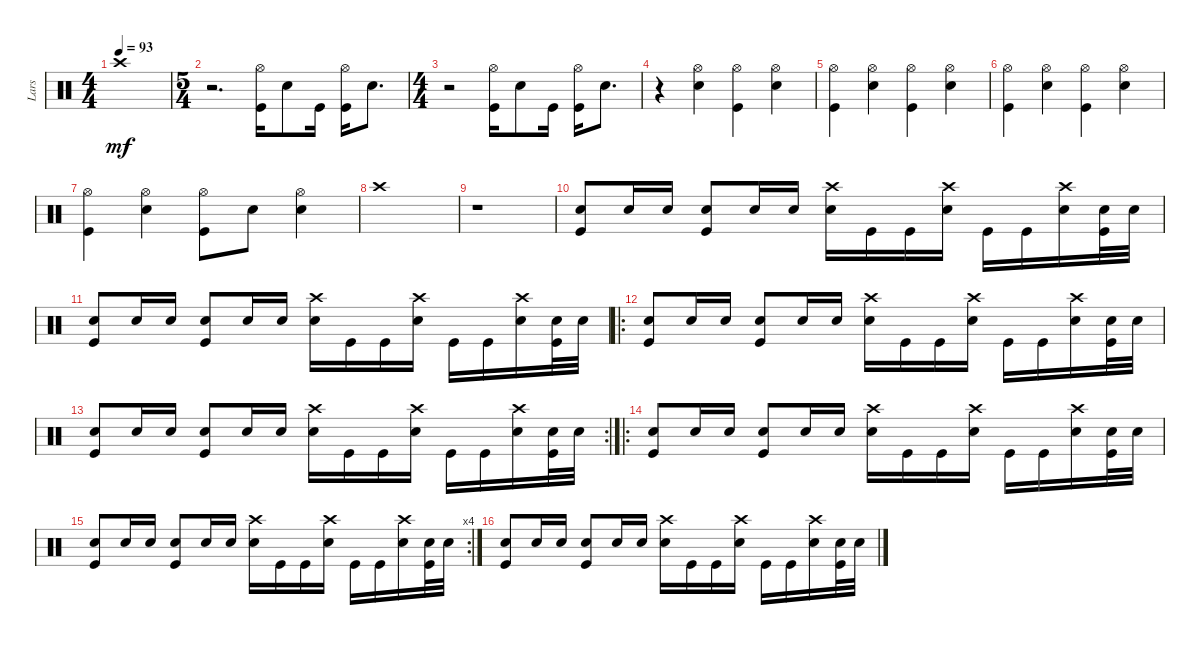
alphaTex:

\track ("Lars" "Lars") {instrument percussion}
\staff {score}
\articulation defaults
\ts (4 4)
\tempo 93
\clef neutral
\ks c "Crash high (hit)".1{dy mf}
|
\ts (5 4)
r.2{d} ("Hi-Hat (open)" "Kick (hit)").16 "Snare (hit) 2".8 "Kick (hit)".16 ("Hi-Hat (open)" "Kick (hit)").16 "Snare (hit) 2".8{d} |
\ts (4 4)
r.2 ("Hi-Hat (open)" "Kick (hit)").16 "Snare (hit) 2".8 "Kick (hit)".16 ("Hi-Hat (open)" "Kick (hit)").16 "Snare (hit) 2".8{d} |
r.4 ("Hi-Hat (open)" "Snare (hit) 2").4 ("Hi-Hat (open)" "Kick (hit)").4 ("Hi-Hat (open)" "Snare (hit) 2").4 |
("Hi-Hat (open)" "Kick (hit)").4 ("Hi-Hat (open)" "Snare (hit) 2").4 ("Hi-Hat (open)" "Kick (hit)").4 ("Hi-Hat (open)" "Snare (hit) 2").4 |
("Hi-Hat (open)" "Kick (hit)").4 ("Hi-Hat (open)" "Snare (hit) 2").4 ("Hi-Hat (open)" "Kick (hit)").4 ("Hi-Hat (open)" "Snare (hit) 2").4 |
("Hi-Hat (open)" "Kick (hit)").4 ("Hi-Hat (open)" "Snare (hit) 2").4 ("Hi-Hat (open)" "Kick (hit)").8 "Snare (hit) 2".8 ("Hi-Hat (open)" "Snare (hit) 2").4 |
"Crash high (hit)".1 |
r.1 |
("Snare (hit) 2" "Kick (hit)").8 "Snare (hit) 2".16 "Snare (hit) 2".16 ("Snare (hit) 2" "Kick (hit)").8 "Snare (hit) 2".16 "Snare (hit) 2".16 ("Crash high (hit)" "Snare (hit) 2").16 "Kick (hit)".16 "Kick (hit)".16 ("Crash high (hit)" "Snare (hit) 2").16 "Kick (hit)".16 "Kick (hit)".16 ("Crash high (hit)" "Snare (hit) 2").16 ("Snare (hit) 2" "Kick (hit)").32 "Snare (hit) 2".32 |
("Snare (hit) 2" "Kick (hit)").8 "Snare (hit) 2".16 "Snare (hit) 2".16 ("Snare (hit) 2" "Kick (hit)").8 "Snare (hit) 2".16 "Snare (hit) 2".16 ("Crash high (hit)" "Snare (hit) 2").16 "Kick (hit)".16 "Kick (hit)".16 ("Crash high (hit)" "Snare (hit) 2").16 "Kick (hit)".16 "Kick (hit)".16 ("Crash high (hit)" "Snare (hit) 2").16 ("Snare (hit) 2" "Kick (hit)").32 "Snare (hit) 2".32 |
\ro
("Snare (hit) 2" "Kick (hit)").8 "Snare (hit) 2".16 "Snare (hit) 2".16 ("Snare (hit) 2" "Kick (hit)").8 "Snare (hit) 2".16 "Snare (hit) 2".16 ("Crash high (hit)" "Snare (hit) 2").16 "Kick (hit)".16 "Kick (hit)".16 ("Crash high (hit)" "Snare (hit) 2").16 "Kick (hit)".16 "Kick (hit)".16 ("Crash high (hit)" "Snare (hit) 2").16 ("Snare (hit) 2" "Kick (hit)").32 "Snare (hit) 2".32 |
\rc 2
("Snare (hit) 2" "Kick (hit)").8 "Snare (hit) 2".16 "Snare (hit) 2".16 ("Snare (hit) 2" "Kick (hit)").8 "Snare (hit) 2".16 "Snare (hit) 2".16 ("Crash high (hit)" "Snare (hit) 2").16 "Kick (hit)".16 "Kick (hit)".16 ("Crash high (hit)" "Snare (hit) 2").16 "Kick (hit)".16 "Kick (hit)".16 ("Crash high (hit)" "Snare (hit) 2").16 ("Snare (hit) 2" "Kick (hit)").32 "Snare (hit) 2".32 |
\ro
("Snare (hit) 2" "Kick (hit)").8 "Snare (hit) 2".16 "Snare (hit) 2".16 ("Snare (hit) 2" "Kick (hit)").8 "Snare (hit) 2".16 "Snare (hit) 2".16 ("Crash high (hit)" "Snare (hit) 2").16 "Kick (hit)".16 "Kick (hit)".16 ("Crash high (hit)" "Snare (hit) 2").16 "Kick (hit)".16 "Kick (hit)".16 ("Crash high (hit)" "Snare (hit) 2").16 ("Snare (hit) 2" "Kick (hit)").32 "Snare (hit) 2".32 |
\rc 4
("Snare (hit) 2" "Kick (hit)").8 "Snare (hit) 2".16 "Snare (hit) 2".16 ("Snare (hit) 2" "Kick (hit)").8 "Snare (hit) 2".16 "Snare (hit) 2".16 ("Crash high (hit)" "Snare (hit) 2").16 "Kick (hit)".16 "Kick (hit)".16 ("Crash high (hit)" "Snare (hit) 2").16 "Kick (hit)".16 "Kick (hit)".16 ("Crash high (hit)" "Snare (hit) 2").16 ("Snare (hit) 2" "Kick (hit)").32 "Snare (hit) 2".32 |
("Snare (hit) 2" "Kick (hit)").8 "Snare (hit) 2".16 "Snare (hit) 2".16 ("Snare (hit) 2" "Kick (hit)").8 "Snare (hit) 2".16 "Snare (hit) 2".16 ("Crash high (hit)" "Snare (hit) 2").16 "Kick (hit)".16 "Kick (hit)".16 ("Crash high (hit)" "Snare (hit) 2").16 "Kick (hit)".16 "Kick (hit)".16 ("Crash high (hit)" "Snare (hit) 2").16 ("Snare (hit) 2" "Kick (hit)").32 "Snare (hit) 2".32
